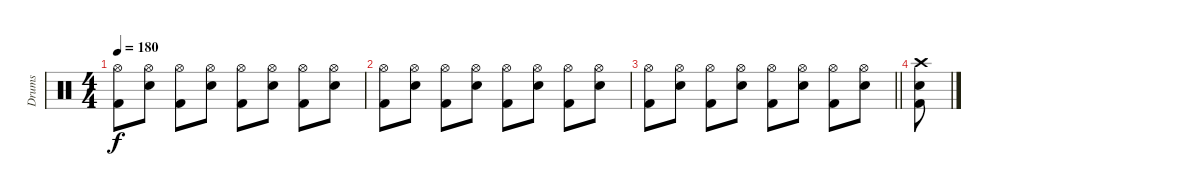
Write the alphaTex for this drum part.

\track ("Drums" "Drums") {instrument percussion}
\staff {score}
\articulation defaults
\ts (4 4)
\tempo 180
\clef neutral
\ks c
("Hi-Hat (open)" "Kick (hit) 2").8{dy f} ("Hi-Hat (open)" "Snare (hit) 2").8 ("Hi-Hat (open)" "Kick (hit) 2").8 ("Hi-Hat (open)" "Snare (hit) 2").8 ("Hi-Hat (open)" "Kick (hit) 2").8 ("Hi-Hat (open)" "Snare (hit) 2").8 ("Hi-Hat (open)" "Kick (hit) 2").8 ("Hi-Hat (open)" "Snare (hit) 2").8 |
("Hi-Hat (open)" "Kick (hit) 2").8 ("Hi-Hat (open)" "Snare (hit) 2").8 ("Hi-Hat (open)" "Kick (hit) 2").8 ("Hi-Hat (open)" "Snare (hit) 2").8 ("Hi-Hat (open)" "Kick (hit) 2").8 ("Hi-Hat (open)" "Snare (hit) 2").8 ("Hi-Hat (open)" "Kick (hit) 2").8 ("Hi-Hat (open)" "Snare (hit) 2").8 |
\barLineRight lightlight
("Hi-Hat (open)" "Kick (hit) 2").8 ("Hi-Hat (open)" "Snare (hit) 2").8 ("Hi-Hat (open)" "Kick (hit) 2").8 ("Hi-Hat (open)" "Snare (hit) 2").8 ("Hi-Hat (open)" "Kick (hit) 2").8 ("Hi-Hat (open)" "Snare (hit) 2").8 ("Hi-Hat (open)" "Kick (hit) 2").8 ("Hi-Hat (open)" "Snare (hit) 2").8 |
("Crash high (hit)" "Snare (hit) 2" "Kick (hit) 2").8
